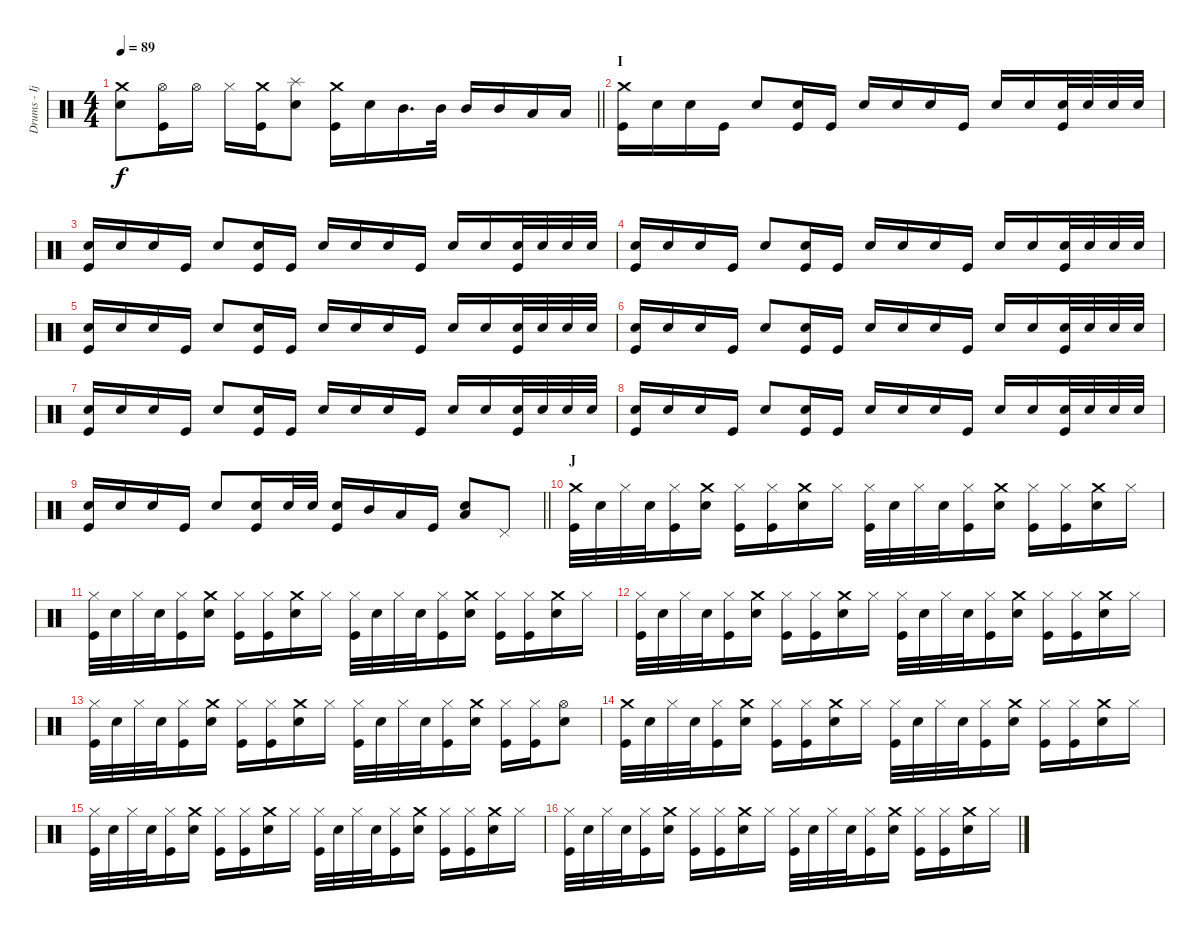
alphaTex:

\track ("Drums - Ijichi" "Drums - Ij") {instrument percussion}
\staff {score}
\articulation defaults
\ts (4 4)
\tempo 89
\clef neutral
\barLineRight lightlight
\ks c
("Crash medium (hit)" "Electric Snare (hit)").8{dy f} ("Hi-Hat (open)" "Kick (hit)").16 "Hi-Hat (open)".16 "Hi-Hat (closed)".16 ("Crash medium (hit)" "Kick (hit)").16 ("Splash (hit)" "Electric Snare (hit)").8 ("Crash medium (hit)" "Kick (hit)").16 "Electric Snare (hit)".16 "Mid Tom (hit)".16{d} "Mid Tom (hit)".32 "Mid Tom (hit)".16 "Mid Tom (hit)".16 "Low Tom (hit)".16 "Low Tom (hit)".16 |
\section ("" "I")
("Crash medium (hit)" "Kick (hit)").16 "Electric Snare (hit)".16 "Electric Snare (hit)".16 "Kick (hit)".16 "Electric Snare (hit)".8 ("Electric Snare (hit)" "Kick (hit)").16 "Kick (hit)".16 "Electric Snare (hit)".16 "Electric Snare (hit)".16 "Electric Snare (hit)".16 "Kick (hit)".16 "Electric Snare (hit)".16 "Electric Snare (hit)".16 ("Electric Snare (hit)" "Kick (hit)").32 "Electric Snare (hit)".32 "Electric Snare (hit)".32 "Electric Snare (hit)".32 |
("Electric Snare (hit)" "Kick (hit)").16 "Electric Snare (hit)".16 "Electric Snare (hit)".16 "Kick (hit)".16 "Electric Snare (hit)".8 ("Electric Snare (hit)" "Kick (hit)").16 "Kick (hit)".16 "Electric Snare (hit)".16 "Electric Snare (hit)".16 "Electric Snare (hit)".16 "Kick (hit)".16 "Electric Snare (hit)".16 "Electric Snare (hit)".16 ("Electric Snare (hit)" "Kick (hit)").32 "Electric Snare (hit)".32 "Electric Snare (hit)".32 "Electric Snare (hit)".32 |
("Electric Snare (hit)" "Kick (hit)").16 "Electric Snare (hit)".16 "Electric Snare (hit)".16 "Kick (hit)".16 "Electric Snare (hit)".8 ("Electric Snare (hit)" "Kick (hit)").16 "Kick (hit)".16 "Electric Snare (hit)".16 "Electric Snare (hit)".16 "Electric Snare (hit)".16 "Kick (hit)".16 "Electric Snare (hit)".16 "Electric Snare (hit)".16 ("Electric Snare (hit)" "Kick (hit)").32 "Electric Snare (hit)".32 "Electric Snare (hit)".32 "Electric Snare (hit)".32 |
("Electric Snare (hit)" "Kick (hit)").16 "Electric Snare (hit)".16 "Electric Snare (hit)".16 "Kick (hit)".16 "Electric Snare (hit)".8 ("Electric Snare (hit)" "Kick (hit)").16 "Kick (hit)".16 "Electric Snare (hit)".16 "Electric Snare (hit)".16 "Electric Snare (hit)".16 "Kick (hit)".16 "Electric Snare (hit)".16 "Electric Snare (hit)".16 ("Electric Snare (hit)" "Kick (hit)").32 "Electric Snare (hit)".32 "Electric Snare (hit)".32 "Electric Snare (hit)".32 |
("Electric Snare (hit)" "Kick (hit)").16 "Electric Snare (hit)".16 "Electric Snare (hit)".16 "Kick (hit)".16 "Electric Snare (hit)".8 ("Electric Snare (hit)" "Kick (hit)").16 "Kick (hit)".16 "Electric Snare (hit)".16 "Electric Snare (hit)".16 "Electric Snare (hit)".16 "Kick (hit)".16 "Electric Snare (hit)".16 "Electric Snare (hit)".16 ("Electric Snare (hit)" "Kick (hit)").32 "Electric Snare (hit)".32 "Electric Snare (hit)".32 "Electric Snare (hit)".32 |
("Electric Snare (hit)" "Kick (hit)").16 "Electric Snare (hit)".16 "Electric Snare (hit)".16 "Kick (hit)".16 "Electric Snare (hit)".8 ("Electric Snare (hit)" "Kick (hit)").16 "Kick (hit)".16 "Electric Snare (hit)".16 "Electric Snare (hit)".16 "Electric Snare (hit)".16 "Kick (hit)".16 "Electric Snare (hit)".16 "Electric Snare (hit)".16 ("Electric Snare (hit)" "Kick (hit)").32 "Electric Snare (hit)".32 "Electric Snare (hit)".32 "Electric Snare (hit)".32 |
("Electric Snare (hit)" "Kick (hit)").16 "Electric Snare (hit)".16 "Electric Snare (hit)".16 "Kick (hit)".16 "Electric Snare (hit)".8 ("Electric Snare (hit)" "Kick (hit)").16 "Kick (hit)".16 "Electric Snare (hit)".16 "Electric Snare (hit)".16 "Electric Snare (hit)".16 "Kick (hit)".16 "Electric Snare (hit)".16 "Electric Snare (hit)".16 ("Electric Snare (hit)" "Kick (hit)").32 "Electric Snare (hit)".32 "Electric Snare (hit)".32 "Electric Snare (hit)".32 |
\barLineRight lightlight
("Electric Snare (hit)" "Kick (hit)").16 "Electric Snare (hit)".16 "Electric Snare (hit)".16 "Kick (hit)".16 "Electric Snare (hit)".8 ("Electric Snare (hit)" "Kick (hit)").16 "Electric Snare (hit)".32 "Electric Snare (hit)".32 ("Electric Snare (hit)" "Kick (hit)").16 "Mid Tom (hit)".16 "Low Tom (hit)".16 "Kick (hit)".16 ("Electric Snare (hit)" "Low Tom (hit)").8 "Pedal Hi-Hat (hit)".8 |
\section ("" "J")
("Crash medium (hit)" "Kick (hit)").32 "Electric Snare (hit)".32 "Hi-Hat (closed)".32 "Electric Snare (hit)".32 ("Hi-Hat (closed)" "Kick (hit)").16 ("Crash medium (hit)" "Electric Snare (hit)").16 ("Hi-Hat (closed)" "Kick (hit)").16 ("Hi-Hat (closed)" "Kick (hit)").16 ("Crash medium (hit)" "Electric Snare (hit)").16 "Hi-Hat (closed)".16 ("Hi-Hat (closed)" "Kick (hit)").32 "Electric Snare (hit)".32 "Hi-Hat (closed)".32 "Electric Snare (hit)".32 ("Hi-Hat (closed)" "Kick (hit)").16 ("Crash medium (hit)" "Electric Snare (hit)").16 ("Hi-Hat (closed)" "Kick (hit)").16 ("Hi-Hat (closed)" "Kick (hit)").16 ("Crash medium (hit)" "Electric Snare (hit)").16 "Hi-Hat (closed)".16 |
("Hi-Hat (closed)" "Kick (hit)").32 "Electric Snare (hit)".32 "Hi-Hat (closed)".32 "Electric Snare (hit)".32 ("Hi-Hat (closed)" "Kick (hit)").16 ("Crash medium (hit)" "Electric Snare (hit)").16 ("Hi-Hat (closed)" "Kick (hit)").16 ("Hi-Hat (closed)" "Kick (hit)").16 ("Crash medium (hit)" "Electric Snare (hit)").16 "Hi-Hat (closed)".16 ("Hi-Hat (closed)" "Kick (hit)").32 "Electric Snare (hit)".32 "Hi-Hat (closed)".32 "Electric Snare (hit)".32 ("Hi-Hat (closed)" "Kick (hit)").16 ("Crash medium (hit)" "Electric Snare (hit)").16 ("Hi-Hat (closed)" "Kick (hit)").16 ("Hi-Hat (closed)" "Kick (hit)").16 ("Crash medium (hit)" "Electric Snare (hit)").16 "Hi-Hat (closed)".16 |
("Hi-Hat (closed)" "Kick (hit)").32 "Electric Snare (hit)".32 "Hi-Hat (closed)".32 "Electric Snare (hit)".32 ("Hi-Hat (closed)" "Kick (hit)").16 ("Crash medium (hit)" "Electric Snare (hit)").16 ("Hi-Hat (closed)" "Kick (hit)").16 ("Hi-Hat (closed)" "Kick (hit)").16 ("Crash medium (hit)" "Electric Snare (hit)").16 "Hi-Hat (closed)".16 ("Hi-Hat (closed)" "Kick (hit)").32 "Electric Snare (hit)".32 "Hi-Hat (closed)".32 "Electric Snare (hit)".32 ("Hi-Hat (closed)" "Kick (hit)").16 ("Crash medium (hit)" "Electric Snare (hit)").16 ("Hi-Hat (closed)" "Kick (hit)").16 ("Hi-Hat (closed)" "Kick (hit)").16 ("Crash medium (hit)" "Electric Snare (hit)").16 "Hi-Hat (closed)".16 |
("Hi-Hat (closed)" "Kick (hit)").32 "Electric Snare (hit)".32 "Hi-Hat (closed)".32 "Electric Snare (hit)".32 ("Hi-Hat (closed)" "Kick (hit)").16 ("Crash medium (hit)" "Electric Snare (hit)").16 ("Hi-Hat (closed)" "Kick (hit)").16 ("Hi-Hat (closed)" "Kick (hit)").16 ("Crash medium (hit)" "Electric Snare (hit)").16 "Hi-Hat (closed)".16 ("Hi-Hat (closed)" "Kick (hit)").32 "Electric Snare (hit)".32 "Hi-Hat (closed)".32 "Electric Snare (hit)".32 ("Hi-Hat (closed)" "Kick (hit)").16 ("Crash medium (hit)" "Electric Snare (hit)").16 ("Hi-Hat (closed)" "Kick (hit)").16 ("Hi-Hat (closed)" "Kick (hit)").16 ("Hi-Hat (open)" "Electric Snare (hit)").8 |
("Crash medium (hit)" "Kick (hit)").32 "Electric Snare (hit)".32 "Hi-Hat (closed)".32 "Electric Snare (hit)".32 ("Hi-Hat (closed)" "Kick (hit)").16 ("Crash medium (hit)" "Electric Snare (hit)").16 ("Hi-Hat (closed)" "Kick (hit)").16 ("Hi-Hat (closed)" "Kick (hit)").16 ("Crash medium (hit)" "Electric Snare (hit)").16 "Hi-Hat (closed)".16 ("Hi-Hat (closed)" "Kick (hit)").32 "Electric Snare (hit)".32 "Hi-Hat (closed)".32 "Electric Snare (hit)".32 ("Hi-Hat (closed)" "Kick (hit)").16 ("Crash medium (hit)" "Electric Snare (hit)").16 ("Hi-Hat (closed)" "Kick (hit)").16 ("Hi-Hat (closed)" "Kick (hit)").16 ("Crash medium (hit)" "Electric Snare (hit)").16 "Hi-Hat (closed)".16 |
("Hi-Hat (closed)" "Kick (hit)").32 "Electric Snare (hit)".32 "Hi-Hat (closed)".32 "Electric Snare (hit)".32 ("Hi-Hat (closed)" "Kick (hit)").16 ("Crash medium (hit)" "Electric Snare (hit)").16 ("Hi-Hat (closed)" "Kick (hit)").16 ("Hi-Hat (closed)" "Kick (hit)").16 ("Crash medium (hit)" "Electric Snare (hit)").16 "Hi-Hat (closed)".16 ("Hi-Hat (closed)" "Kick (hit)").32 "Electric Snare (hit)".32 "Hi-Hat (closed)".32 "Electric Snare (hit)".32 ("Hi-Hat (closed)" "Kick (hit)").16 ("Crash medium (hit)" "Electric Snare (hit)").16 ("Hi-Hat (closed)" "Kick (hit)").16 ("Hi-Hat (closed)" "Kick (hit)").16 ("Crash medium (hit)" "Electric Snare (hit)").16 "Hi-Hat (closed)".16 |
("Hi-Hat (closed)" "Kick (hit)").32 "Electric Snare (hit)".32 "Hi-Hat (closed)".32 "Electric Snare (hit)".32 ("Hi-Hat (closed)" "Kick (hit)").16 ("Crash medium (hit)" "Electric Snare (hit)").16 ("Hi-Hat (closed)" "Kick (hit)").16 ("Hi-Hat (closed)" "Kick (hit)").16 ("Crash medium (hit)" "Electric Snare (hit)").16 "Hi-Hat (closed)".16 ("Hi-Hat (closed)" "Kick (hit)").32 "Electric Snare (hit)".32 "Hi-Hat (closed)".32 "Electric Snare (hit)".32 ("Hi-Hat (closed)" "Kick (hit)").16 ("Crash medium (hit)" "Electric Snare (hit)").16 ("Hi-Hat (closed)" "Kick (hit)").16 ("Hi-Hat (closed)" "Kick (hit)").16 ("Crash medium (hit)" "Electric Snare (hit)").16 "Hi-Hat (closed)".16
